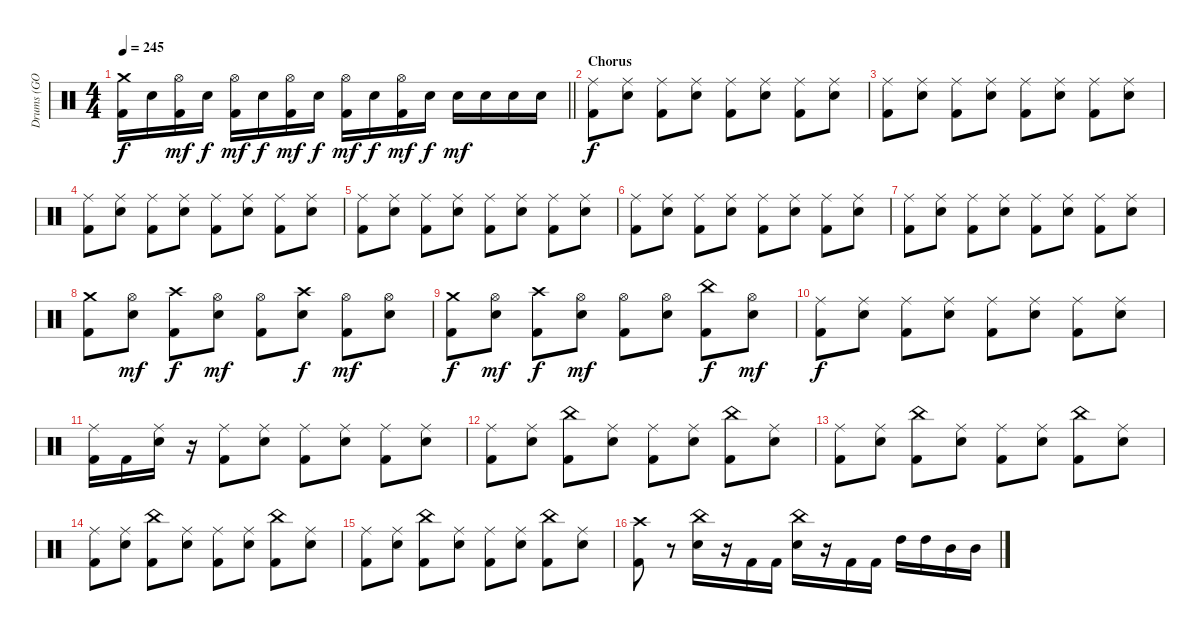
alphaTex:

\track ("Drums (GO DIRK)" "Drums (GO ") {instrument percussion}
\staff {score}
\articulation defaults
\ts (4 4)
\tempo 245
\clef neutral
\barLineRight lightlight
\ks c
("Crash medium (hit)" "Kick (hit) 2").16{dy f} "Electric Snare (hit)".16 ("Hi-Hat (open)" "Kick (hit) 2").16{dy mf} "Electric Snare (hit)".16{dy f} ("Hi-Hat (open)" "Kick (hit) 2").16{dy mf} "Electric Snare (hit)".16{dy f} ("Hi-Hat (open)" "Kick (hit) 2").16{dy mf} "Electric Snare (hit)".16{dy f} ("Hi-Hat (open)" "Kick (hit) 2").16{dy mf} "Electric Snare (hit)".16{dy f} ("Hi-Hat (open)" "Kick (hit) 2").16{dy mf} "Electric Snare (hit)".16{dy f} "Electric Snare (hit)".16{dy mf} "Electric Snare (hit)".16 "Electric Snare (hit)".16 "Electric Snare (hit)".16 |
\section ("" "Chorus")
("Ride (middle)" "Kick (hit) 2").8{dy f} ("Ride (middle)" "Electric Snare (hit)").8 ("Ride (middle)" "Kick (hit) 2").8 ("Ride (middle)" "Electric Snare (hit)").8 ("Ride (middle)" "Kick (hit) 2").8 ("Ride (middle)" "Electric Snare (hit)").8 ("Ride (middle)" "Kick (hit) 2").8 ("Ride (middle)" "Electric Snare (hit)").8 |
("Ride (middle)" "Kick (hit) 2").8 ("Ride (middle)" "Electric Snare (hit)").8 ("Ride (middle)" "Kick (hit) 2").8 ("Ride (middle)" "Electric Snare (hit)").8 ("Ride (middle)" "Kick (hit) 2").8 ("Ride (middle)" "Electric Snare (hit)").8 ("Ride (middle)" "Kick (hit) 2").8 ("Ride (middle)" "Electric Snare (hit)").8 |
("Ride (middle)" "Kick (hit) 2").8 ("Ride (middle)" "Electric Snare (hit)").8 ("Ride (middle)" "Kick (hit) 2").8 ("Ride (middle)" "Electric Snare (hit)").8 ("Ride (middle)" "Kick (hit) 2").8 ("Ride (middle)" "Electric Snare (hit)").8 ("Ride (middle)" "Kick (hit) 2").8 ("Ride (middle)" "Electric Snare (hit)").8 |
("Ride (middle)" "Kick (hit) 2").8 ("Ride (middle)" "Electric Snare (hit)").8 ("Ride (middle)" "Kick (hit) 2").8 ("Ride (middle)" "Electric Snare (hit)").8 ("Ride (middle)" "Kick (hit) 2").8 ("Ride (middle)" "Electric Snare (hit)").8 ("Ride (middle)" "Kick (hit) 2").8 ("Ride (middle)" "Electric Snare (hit)").8 |
("Ride (middle)" "Kick (hit) 2").8 ("Ride (middle)" "Electric Snare (hit)").8 ("Ride (middle)" "Kick (hit) 2").8 ("Ride (middle)" "Electric Snare (hit)").8 ("Ride (middle)" "Kick (hit) 2").8 ("Ride (middle)" "Electric Snare (hit)").8 ("Ride (middle)" "Kick (hit) 2").8 ("Ride (middle)" "Electric Snare (hit)").8 |
("Ride (middle)" "Kick (hit) 2").8 ("Ride (middle)" "Electric Snare (hit)").8 ("Ride (middle)" "Kick (hit) 2").8 ("Ride (middle)" "Electric Snare (hit)").8 ("Ride (middle)" "Kick (hit) 2").8 ("Ride (middle)" "Electric Snare (hit)").8 ("Ride (middle)" "Kick (hit) 2").8 ("Ride (middle)" "Electric Snare (hit)").8 |
("Crash medium (hit)" "Kick (hit) 2").8 ("Hi-Hat (open)" "Electric Snare (hit)").8{dy mf} ("Crash high (hit)" "Kick (hit) 2").8{dy f} ("Hi-Hat (open)" "Electric Snare (hit)").8{dy mf} ("Hi-Hat (open)" "Kick (hit) 2").8 ("Crash high (hit)" "Electric Snare (hit)").8{dy f} ("Hi-Hat (open)" "Kick (hit) 2").8{dy mf} ("Hi-Hat (open)" "Electric Snare (hit)").8 |
("Crash medium (hit)" "Kick (hit) 2").8{dy f} ("Hi-Hat (open)" "Electric Snare (hit)").8{dy mf} ("Crash high (hit)" "Kick (hit) 2").8{dy f} ("Hi-Hat (open)" "Electric Snare (hit)").8{dy mf} ("Hi-Hat (open)" "Kick (hit) 2").8 ("Hi-Hat (open)" "Electric Snare (hit)").8 ("China (hit)" "Kick (hit) 2").8{dy f} ("Hi-Hat (open)" "Electric Snare (hit)").8{dy mf} |
("Ride (middle)" "Kick (hit) 2").8{dy f} ("Ride (middle)" "Electric Snare (hit)").8 ("Ride (middle)" "Kick (hit) 2").8 ("Ride (middle)" "Electric Snare (hit)").8 ("Ride (middle)" "Kick (hit) 2").8 ("Ride (middle)" "Electric Snare (hit)").8 ("Ride (middle)" "Kick (hit) 2").8 ("Ride (middle)" "Electric Snare (hit)").8 |
("Ride (middle)" "Kick (hit) 2").16 "Kick (hit) 2".16 ("Ride (middle)" "Electric Snare (hit)").16 r.16 ("Ride (middle)" "Kick (hit) 2").8 ("Ride (middle)" "Electric Snare (hit)").8 ("Ride (middle)" "Kick (hit) 2").8 ("Ride (middle)" "Electric Snare (hit)").8 ("Ride (middle)" "Kick (hit) 2").8 ("Ride (middle)" "Electric Snare (hit)").8 |
("Ride (middle)" "Kick (hit) 2").8 ("Ride (middle)" "Electric Snare (hit)").8 ("China (hit)" "Kick (hit) 2").8 ("Ride (middle)" "Electric Snare (hit)").8 ("Ride (middle)" "Kick (hit) 2").8 ("Ride (middle)" "Electric Snare (hit)").8 ("China (hit)" "Kick (hit) 2").8 ("Ride (middle)" "Electric Snare (hit)").8 |
("Ride (middle)" "Kick (hit) 2").8 ("Ride (middle)" "Electric Snare (hit)").8 ("China (hit)" "Kick (hit) 2").8 ("Ride (middle)" "Electric Snare (hit)").8 ("Ride (middle)" "Kick (hit) 2").8 ("Ride (middle)" "Electric Snare (hit)").8 ("China (hit)" "Kick (hit) 2").8 ("Ride (middle)" "Electric Snare (hit)").8 |
("Ride (middle)" "Kick (hit) 2").8 ("Ride (middle)" "Electric Snare (hit)").8 ("China (hit)" "Kick (hit) 2").8 ("Ride (middle)" "Electric Snare (hit)").8 ("Ride (middle)" "Kick (hit) 2").8 ("Ride (middle)" "Electric Snare (hit)").8 ("China (hit)" "Kick (hit) 2").8 ("Ride (middle)" "Electric Snare (hit)").8 |
("Ride (middle)" "Kick (hit) 2").8 ("Ride (middle)" "Electric Snare (hit)").8 ("China (hit)" "Kick (hit) 2").8 ("Ride (middle)" "Electric Snare (hit)").8 ("Ride (middle)" "Kick (hit) 2").8 ("Ride (middle)" "Electric Snare (hit)").8 ("China (hit)" "Kick (hit) 2").8 ("Ride (middle)" "Electric Snare (hit)").8 |
("Crash high (hit)" "Kick (hit) 2").8 r.8 ("China (hit)" "Electric Snare (hit)").16 r.16 "Kick (hit) 2".16 "Kick (hit) 2".16 ("China (hit)" "Electric Snare (hit)").16 r.16 "Kick (hit) 2".16 "Kick (hit) 2".16 "High Tom (hit)".16 "High Tom (hit)".16 "Mid Tom (hit)".16 "Mid Tom (hit)".16
